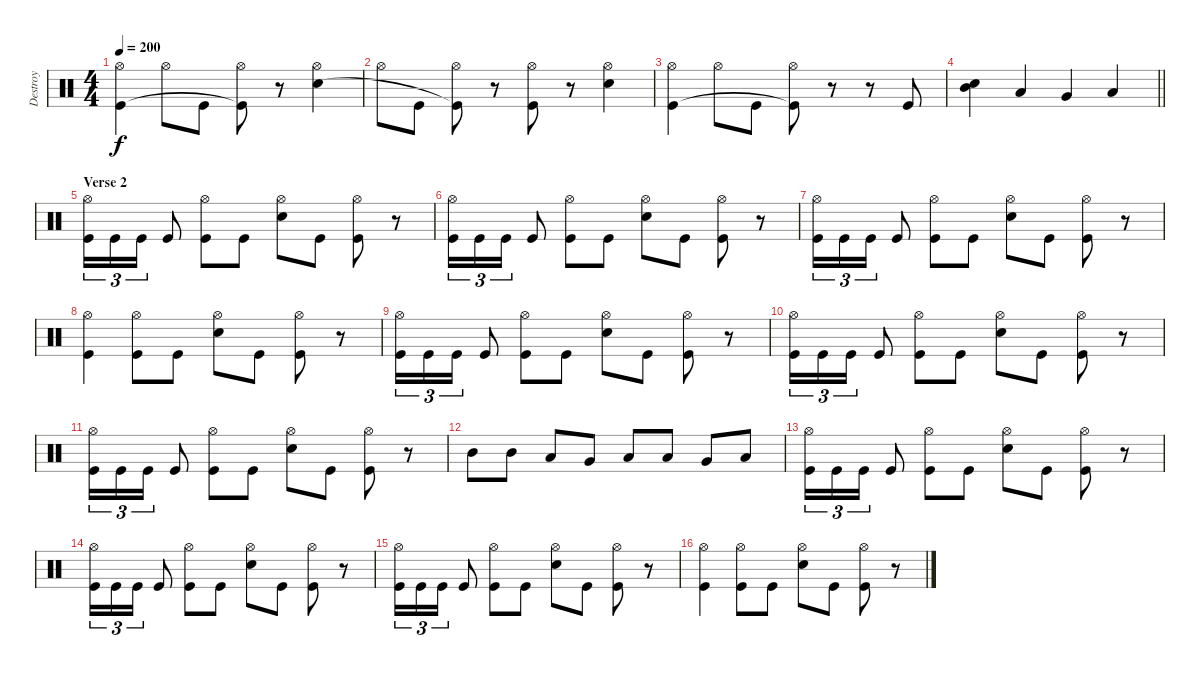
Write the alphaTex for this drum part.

\track ("Destroy" "Destroy") {instrument percussion}
\staff {score}
\articulation defaults
\ts (4 4)
\tempo 200
\clef neutral
\ks c
("Hi-Hat (open)" "Kick (hit)").4{dy f} "Hi-Hat (open)".8 "Kick (hit)".8 ("Hi-Hat (open)" "Kick (hit)"{t}).8 r.8 ("Hi-Hat (open)" "Snare (hit) 2").4 |
"Hi-Hat (open)".8 "Kick (hit)".8 ("Hi-Hat (open)" "Kick (hit)"{t}).8 r.8 ("Hi-Hat (open)" "Kick (hit)").8 r.8 ("Hi-Hat (open)" "Snare (hit) 2").4 |
("Hi-Hat (open)" "Kick (hit)").4 "Hi-Hat (open)".8 "Kick (hit)".8 ("Hi-Hat (open)" "Kick (hit)"{t}).8 r.8 r.8 "Kick (hit)".8 |
\barLineRight lightlight
("Mid Tom (hit)" "Snare (hit) 2").4 "Low Tom (hit)".4 "Very Low Tom (hit)".4 "Low Floor Tom (hit)".4 |
\section ("" "Verse 2")
("Hi-Hat (open)" "Kick (hit)").16{tu (3 2)} "Kick (hit)".16{tu (3 2)} "Kick (hit)".16{tu (3 2)} "Kick (hit)".8 ("Hi-Hat (open)" "Kick (hit)").8 "Kick (hit)".8 ("Hi-Hat (open)" "Snare (hit) 2").8 "Kick (hit)".8 ("Hi-Hat (open)" "Kick (hit)").8 r.8 |
("Hi-Hat (open)" "Kick (hit)").16{tu (3 2)} "Kick (hit)".16{tu (3 2)} "Kick (hit)".16{tu (3 2)} "Kick (hit)".8 ("Hi-Hat (open)" "Kick (hit)").8 "Kick (hit)".8 ("Hi-Hat (open)" "Snare (hit) 2").8 "Kick (hit)".8 ("Hi-Hat (open)" "Kick (hit)").8 r.8 |
("Hi-Hat (open)" "Kick (hit)").16{tu (3 2)} "Kick (hit)".16{tu (3 2)} "Kick (hit)".16{tu (3 2)} "Kick (hit)".8 ("Hi-Hat (open)" "Kick (hit)").8 "Kick (hit)".8 ("Hi-Hat (open)" "Snare (hit) 2").8 "Kick (hit)".8 ("Hi-Hat (open)" "Kick (hit)").8 r.8 |
("Hi-Hat (open)" "Kick (hit)").4 ("Hi-Hat (open)" "Kick (hit)").8 "Kick (hit)".8 ("Hi-Hat (open)" "Snare (hit) 2").8 "Kick (hit)".8 ("Hi-Hat (open)" "Kick (hit)").8 r.8 |
("Hi-Hat (open)" "Kick (hit)").16{tu (3 2)} "Kick (hit)".16{tu (3 2)} "Kick (hit)".16{tu (3 2)} "Kick (hit)".8 ("Hi-Hat (open)" "Kick (hit)").8 "Kick (hit)".8 ("Hi-Hat (open)" "Snare (hit) 2").8 "Kick (hit)".8 ("Hi-Hat (open)" "Kick (hit)").8 r.8 |
("Hi-Hat (open)" "Kick (hit)").16{tu (3 2)} "Kick (hit)".16{tu (3 2)} "Kick (hit)".16{tu (3 2)} "Kick (hit)".8 ("Hi-Hat (open)" "Kick (hit)").8 "Kick (hit)".8 ("Hi-Hat (open)" "Snare (hit) 2").8 "Kick (hit)".8 ("Hi-Hat (open)" "Kick (hit)").8 r.8 |
("Hi-Hat (open)" "Kick (hit)").16{tu (3 2)} "Kick (hit)".16{tu (3 2)} "Kick (hit)".16{tu (3 2)} "Kick (hit)".8 ("Hi-Hat (open)" "Kick (hit)").8 "Kick (hit)".8 ("Hi-Hat (open)" "Snare (hit) 2").8 "Kick (hit)".8 ("Hi-Hat (open)" "Kick (hit)").8 r.8 |
"Mid Tom (hit)".8 "Mid Tom (hit)".8 "Low Tom (hit)".8 "Very Low Tom (hit)".8 "Low Tom (hit)".8 "Low Tom (hit)".8 "Very Low Tom (hit)".8 "Low Floor Tom (hit)".8 |
("Hi-Hat (open)" "Kick (hit)").16{tu (3 2)} "Kick (hit)".16{tu (3 2)} "Kick (hit)".16{tu (3 2)} "Kick (hit)".8 ("Hi-Hat (open)" "Kick (hit)").8 "Kick (hit)".8 ("Hi-Hat (open)" "Snare (hit) 2").8 "Kick (hit)".8 ("Hi-Hat (open)" "Kick (hit)").8 r.8 |
("Hi-Hat (open)" "Kick (hit)").16{tu (3 2)} "Kick (hit)".16{tu (3 2)} "Kick (hit)".16{tu (3 2)} "Kick (hit)".8 ("Hi-Hat (open)" "Kick (hit)").8 "Kick (hit)".8 ("Hi-Hat (open)" "Snare (hit) 2").8 "Kick (hit)".8 ("Hi-Hat (open)" "Kick (hit)").8 r.8 |
("Hi-Hat (open)" "Kick (hit)").16{tu (3 2)} "Kick (hit)".16{tu (3 2)} "Kick (hit)".16{tu (3 2)} "Kick (hit)".8 ("Hi-Hat (open)" "Kick (hit)").8 "Kick (hit)".8 ("Hi-Hat (open)" "Snare (hit) 2").8 "Kick (hit)".8 ("Hi-Hat (open)" "Kick (hit)").8 r.8 |
("Hi-Hat (open)" "Kick (hit)").4 ("Hi-Hat (open)" "Kick (hit)").8 "Kick (hit)".8 ("Hi-Hat (open)" "Snare (hit) 2").8 "Kick (hit)".8 ("Hi-Hat (open)" "Kick (hit)").8 r.8
